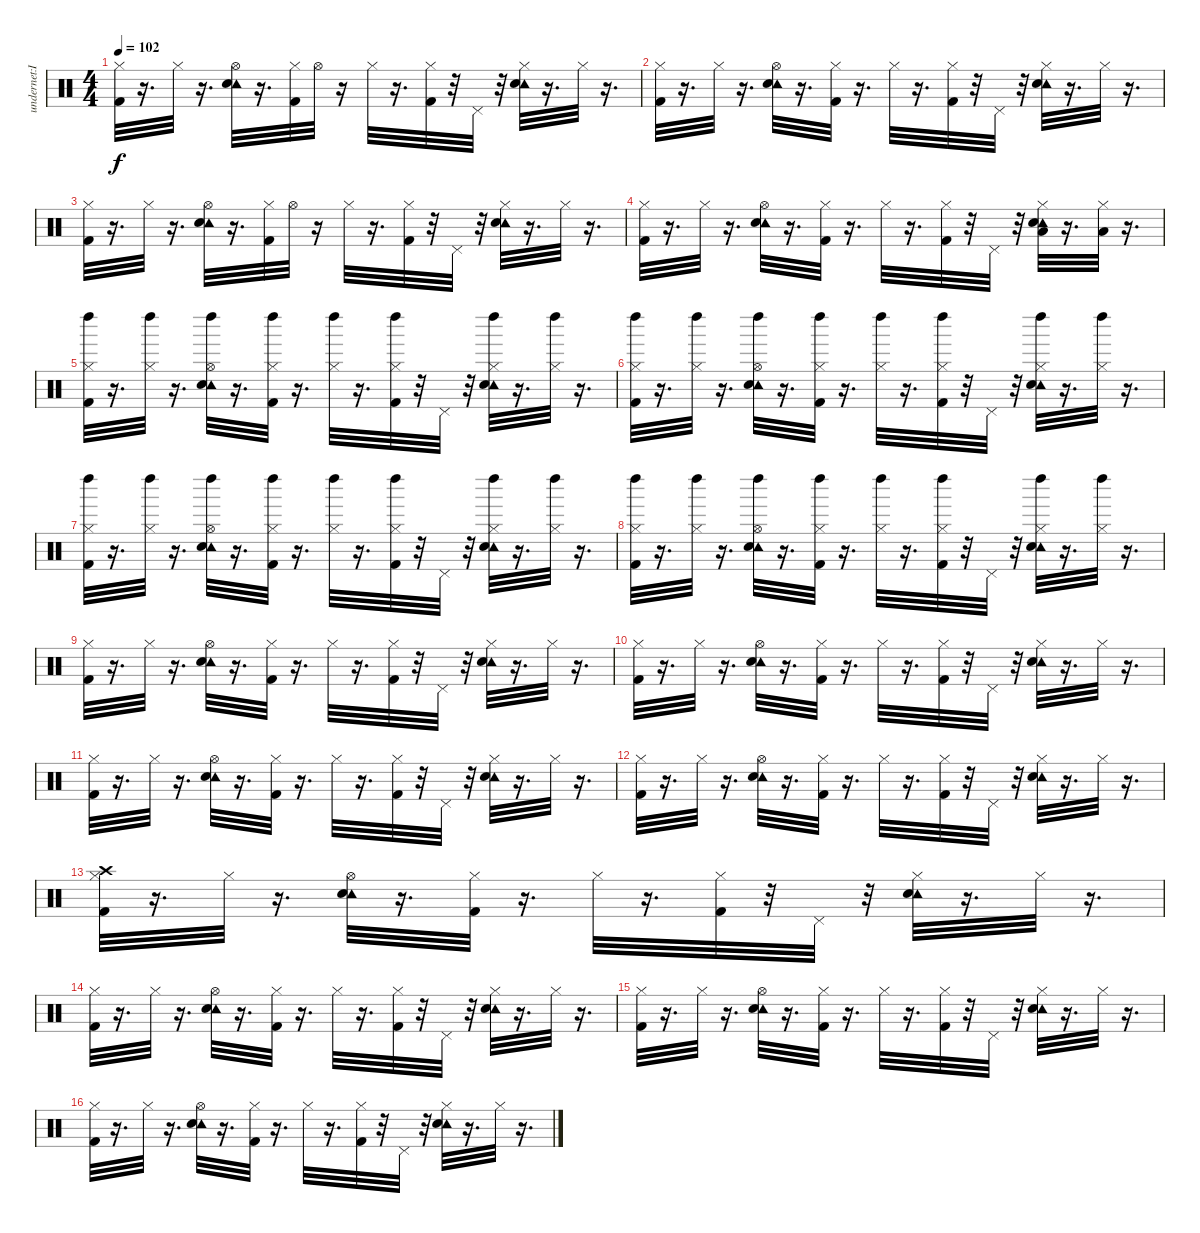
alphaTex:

\track ("undernet:IRC:bong21" "undernet:I") {instrument percussion}
\staff {score}
\articulation defaults
\ts (4 4)
\tempo 102
\clef neutral
\ks c
("Hi-Hat (closed)" "Kick (hit) 2").32{dy f} r.16{d} "Hi-Hat (closed)".32 r.16{d} ("Tambourine (hit)" "Hi-Hat (open)" "Electric Snare (hit)").32 r.16{d} ("Hi-Hat (closed)" "Kick (hit) 2").32 "Hi-Hat (open)".32 r.16 "Hi-Hat (closed)".32 r.16{d} ("Hi-Hat (closed)" "Kick (hit) 2").32 r.32 "Pedal Hi-Hat (hit)".32 r.32 ("Tambourine (hit)" "Hi-Hat (closed)" "Electric Snare (hit)").32 r.16{d} "Hi-Hat (closed)".32 r.16{d} |
("Hi-Hat (closed)" "Kick (hit) 2").32 r.16{d} "Hi-Hat (closed)".32 r.16{d} ("Tambourine (hit)" "Hi-Hat (open)" "Electric Snare (hit)").32 r.16{d} ("Hi-Hat (closed)" "Kick (hit) 2").32 r.16{d} "Hi-Hat (closed)".32 r.16{d} ("Hi-Hat (closed)" "Kick (hit) 2").32 r.32 "Pedal Hi-Hat (hit)".32 r.32 ("Tambourine (hit)" "Hi-Hat (closed)" "Electric Snare (hit)").32 r.16{d} "Hi-Hat (closed)".32 r.16{d} |
("Hi-Hat (closed)" "Kick (hit) 2").32 r.16{d} "Hi-Hat (closed)".32 r.16{d} ("Tambourine (hit)" "Hi-Hat (open)" "Electric Snare (hit)").32 r.16{d} ("Hi-Hat (closed)" "Kick (hit) 2").32 "Hi-Hat (open)".32 r.16 "Hi-Hat (closed)".32 r.16{d} ("Hi-Hat (closed)" "Kick (hit) 2").32 r.32 "Pedal Hi-Hat (hit)".32 r.32 ("Tambourine (hit)" "Hi-Hat (closed)" "Electric Snare (hit)").32 r.16{d} "Hi-Hat (closed)".32 r.16{d} |
("Hi-Hat (closed)" "Kick (hit) 2").32 r.16{d} "Hi-Hat (closed)".32 r.16{d} ("Tambourine (hit)" "Hi-Hat (open)" "Electric Snare (hit)").32 r.16{d} ("Hi-Hat (closed)" "Kick (hit) 2").32 r.16{d} "Hi-Hat (closed)".32 r.16{d} ("Hi-Hat (closed)" "Kick (hit) 2").32 r.32 "Pedal Hi-Hat (hit)".32 r.32 ("Low Floor Tom (hit)" "Tambourine (hit)" "Hi-Hat (closed)" "Electric Snare (hit)").32 r.16{d} ("Low Floor Tom (hit)" "Hi-Hat (closed)").32 r.16{d} |
("Left Maraca (hit)" "Hi-Hat (closed)" "Kick (hit) 2").32 r.16{d} ("Left Maraca (hit)" "Hi-Hat (closed)").32 r.16{d} ("Left Maraca (hit)" "Tambourine (hit)" "Hi-Hat (open)" "Electric Snare (hit)").32 r.16{d} ("Left Maraca (hit)" "Hi-Hat (closed)" "Kick (hit) 2").32 r.16{d} ("Left Maraca (hit)" "Hi-Hat (closed)").32 r.16{d} ("Left Maraca (hit)" "Hi-Hat (closed)" "Kick (hit) 2").32 r.32 "Pedal Hi-Hat (hit)".32 r.32 ("Left Maraca (hit)" "Tambourine (hit)" "Hi-Hat (closed)" "Electric Snare (hit)").32 r.16{d} ("Left Maraca (hit)" "Hi-Hat (closed)").32 r.16{d} |
("Left Maraca (hit)" "Hi-Hat (closed)" "Kick (hit) 2").32 r.16{d} ("Left Maraca (hit)" "Hi-Hat (closed)").32 r.16{d} ("Left Maraca (hit)" "Tambourine (hit)" "Hi-Hat (open)" "Electric Snare (hit)").32 r.16{d} ("Left Maraca (hit)" "Hi-Hat (closed)" "Kick (hit) 2").32 r.16{d} ("Left Maraca (hit)" "Hi-Hat (closed)").32 r.16{d} ("Left Maraca (hit)" "Hi-Hat (closed)" "Kick (hit) 2").32 r.32 "Pedal Hi-Hat (hit)".32 r.32 ("Left Maraca (hit)" "Tambourine (hit)" "Hi-Hat (closed)" "Electric Snare (hit)").32 r.16{d} ("Left Maraca (hit)" "Hi-Hat (closed)").32 r.16{d} |
("Left Maraca (hit)" "Hi-Hat (closed)" "Kick (hit) 2").32 r.16{d} ("Left Maraca (hit)" "Hi-Hat (closed)").32 r.16{d} ("Left Maraca (hit)" "Tambourine (hit)" "Hi-Hat (open)" "Electric Snare (hit)").32 r.16{d} ("Left Maraca (hit)" "Hi-Hat (closed)" "Kick (hit) 2").32 r.16{d} ("Left Maraca (hit)" "Hi-Hat (closed)").32 r.16{d} ("Left Maraca (hit)" "Hi-Hat (closed)" "Kick (hit) 2").32 r.32 "Pedal Hi-Hat (hit)".32 r.32 ("Left Maraca (hit)" "Tambourine (hit)" "Hi-Hat (closed)" "Electric Snare (hit)").32 r.16{d} ("Left Maraca (hit)" "Hi-Hat (closed)").32 r.16{d} |
("Left Maraca (hit)" "Hi-Hat (closed)" "Kick (hit) 2").32 r.16{d} ("Left Maraca (hit)" "Hi-Hat (closed)").32 r.16{d} ("Left Maraca (hit)" "Tambourine (hit)" "Hi-Hat (open)" "Electric Snare (hit)").32 r.16{d} ("Left Maraca (hit)" "Hi-Hat (closed)" "Kick (hit) 2").32 r.16{d} ("Left Maraca (hit)" "Hi-Hat (closed)").32 r.16{d} ("Left Maraca (hit)" "Hi-Hat (closed)" "Kick (hit) 2").32 r.32 "Pedal Hi-Hat (hit)".32 r.32 ("Left Maraca (hit)" "Tambourine (hit)" "Hi-Hat (closed)" "Electric Snare (hit)").32 r.16{d} ("Left Maraca (hit)" "Hi-Hat (closed)").32 r.16{d} |
("Hi-Hat (closed)" "Kick (hit) 2").32 r.16{d} "Hi-Hat (closed)".32 r.16{d} ("Tambourine (hit)" "Hi-Hat (open)" "Electric Snare (hit)").32 r.16{d} ("Hi-Hat (closed)" "Kick (hit) 2").32 r.16{d} "Hi-Hat (closed)".32 r.16{d} ("Hi-Hat (closed)" "Kick (hit) 2").32 r.32 "Pedal Hi-Hat (hit)".32 r.32 ("Tambourine (hit)" "Hi-Hat (closed)" "Electric Snare (hit)").32 r.16{d} "Hi-Hat (closed)".32 r.16{d} |
("Hi-Hat (closed)" "Kick (hit) 2").32 r.16{d} "Hi-Hat (closed)".32 r.16{d} ("Tambourine (hit)" "Hi-Hat (open)" "Electric Snare (hit)").32 r.16{d} ("Hi-Hat (closed)" "Kick (hit) 2").32 r.16{d} "Hi-Hat (closed)".32 r.16{d} ("Hi-Hat (closed)" "Kick (hit) 2").32 r.32 "Pedal Hi-Hat (hit)".32 r.32 ("Tambourine (hit)" "Hi-Hat (closed)" "Electric Snare (hit)").32 r.16{d} "Hi-Hat (closed)".32 r.16{d} |
("Hi-Hat (closed)" "Kick (hit) 2").32 r.16{d} "Hi-Hat (closed)".32 r.16{d} ("Tambourine (hit)" "Hi-Hat (open)" "Electric Snare (hit)").32 r.16{d} ("Hi-Hat (closed)" "Kick (hit) 2").32 r.16{d} "Hi-Hat (closed)".32 r.16{d} ("Hi-Hat (closed)" "Kick (hit) 2").32 r.32 "Pedal Hi-Hat (hit)".32 r.32 ("Tambourine (hit)" "Hi-Hat (closed)" "Electric Snare (hit)").32 r.16{d} "Hi-Hat (closed)".32 r.16{d} |
("Hi-Hat (closed)" "Kick (hit) 2").32 r.16{d} "Hi-Hat (closed)".32 r.16{d} ("Tambourine (hit)" "Hi-Hat (open)" "Electric Snare (hit)").32 r.16{d} ("Hi-Hat (closed)" "Kick (hit) 2").32 r.16{d} "Hi-Hat (closed)".32 r.16{d} ("Hi-Hat (closed)" "Kick (hit) 2").32 r.32 "Pedal Hi-Hat (hit)".32 r.32 ("Tambourine (hit)" "Hi-Hat (closed)" "Electric Snare (hit)").32 r.16{d} "Hi-Hat (closed)".32 r.16{d} |
("Crash high (hit)" "Hi-Hat (closed)" "Kick (hit) 2").32 r.16{d} "Hi-Hat (closed)".32 r.16{d} ("Tambourine (hit)" "Hi-Hat (open)" "Electric Snare (hit)").32 r.16{d} ("Hi-Hat (closed)" "Kick (hit) 2").32 r.16{d} "Hi-Hat (closed)".32 r.16{d} ("Hi-Hat (closed)" "Kick (hit) 2").32 r.32 "Pedal Hi-Hat (hit)".32 r.32 ("Tambourine (hit)" "Hi-Hat (closed)" "Electric Snare (hit)").32 r.16{d} "Hi-Hat (closed)".32 r.16{d} |
("Hi-Hat (closed)" "Kick (hit) 2").32 r.16{d} "Hi-Hat (closed)".32 r.16{d} ("Tambourine (hit)" "Hi-Hat (open)" "Electric Snare (hit)").32 r.16{d} ("Hi-Hat (closed)" "Kick (hit) 2").32 r.16{d} "Hi-Hat (closed)".32 r.16{d} ("Hi-Hat (closed)" "Kick (hit) 2").32 r.32 "Pedal Hi-Hat (hit)".32 r.32 ("Tambourine (hit)" "Hi-Hat (closed)" "Electric Snare (hit)").32 r.16{d} "Hi-Hat (closed)".32 r.16{d} |
("Hi-Hat (closed)" "Kick (hit) 2").32 r.16{d} "Hi-Hat (closed)".32 r.16{d} ("Tambourine (hit)" "Hi-Hat (open)" "Electric Snare (hit)").32 r.16{d} ("Hi-Hat (closed)" "Kick (hit) 2").32 r.16{d} "Hi-Hat (closed)".32 r.16{d} ("Hi-Hat (closed)" "Kick (hit) 2").32 r.32 "Pedal Hi-Hat (hit)".32 r.32 ("Tambourine (hit)" "Hi-Hat (closed)" "Electric Snare (hit)").32 r.16{d} "Hi-Hat (closed)".32 r.16{d} |
("Hi-Hat (closed)" "Kick (hit) 2").32 r.16{d} "Hi-Hat (closed)".32 r.16{d} ("Tambourine (hit)" "Hi-Hat (open)" "Electric Snare (hit)").32 r.16{d} ("Hi-Hat (closed)" "Kick (hit) 2").32 r.16{d} "Hi-Hat (closed)".32 r.16{d} ("Hi-Hat (closed)" "Kick (hit) 2").32 r.32 "Pedal Hi-Hat (hit)".32 r.32 ("Tambourine (hit)" "Hi-Hat (closed)" "Electric Snare (hit)").32 r.16{d} "Hi-Hat (closed)".32 r.16{d}
